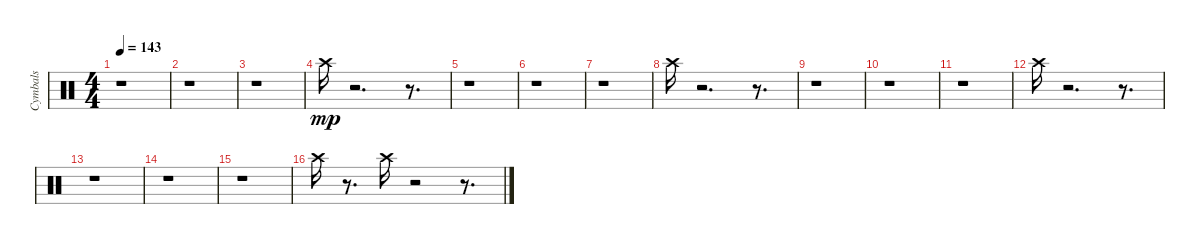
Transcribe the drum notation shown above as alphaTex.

\track ("Cymbals  " "Cymbals  ") {instrument percussion}
\staff {score}
\articulation defaults
\ts (4 4)
\tempo 143
\clef neutral
\ks c
r.1{dy mp} |
r.1 |
r.1 |
"Crash high (hit)".16 r.2{d} r.8{d} |
r.1 |
r.1 |
r.1 |
"Crash high (hit)".16 r.2{d} r.8{d} |
r.1 |
r.1 |
r.1 |
"Crash high (hit)".16 r.2{d} r.8{d} |
r.1 |
r.1 |
r.1 |
"Crash high (hit)".16 r.8{d} "Crash high (hit)".16 r.2 r.8{d}
